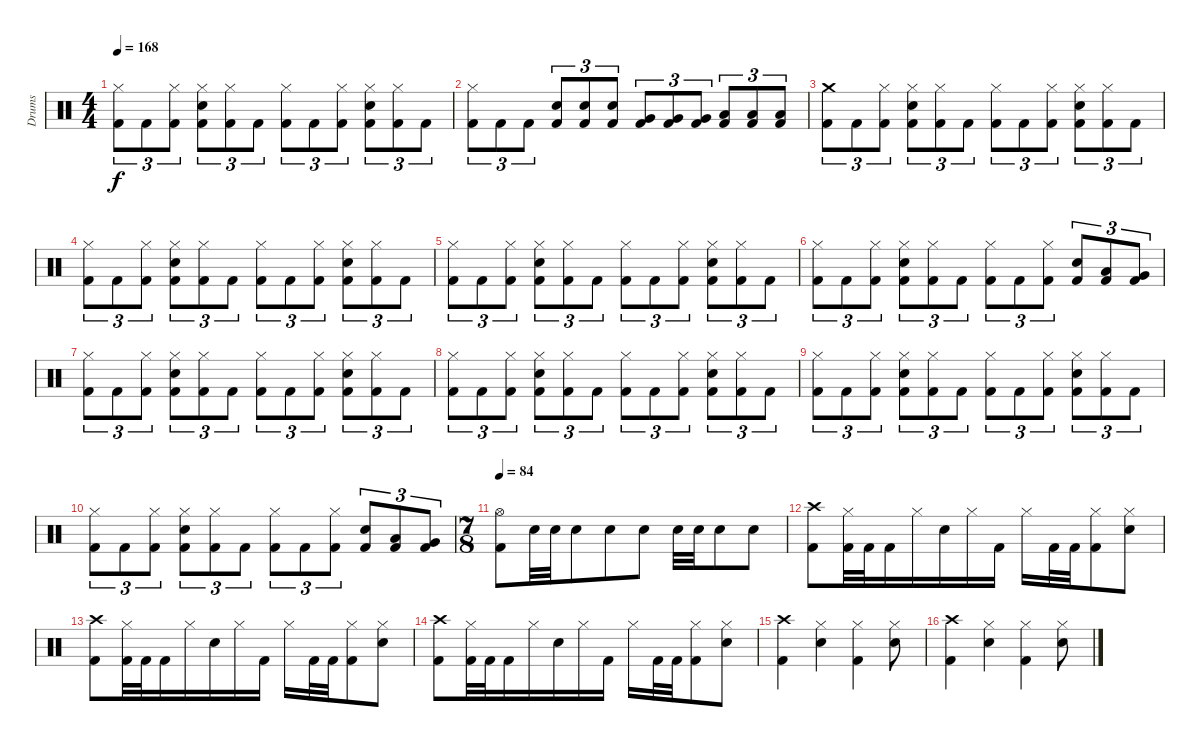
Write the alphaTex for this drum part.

\track ("Drums" "Drums") {instrument percussion}
\staff {score}
\articulation defaults
\ts (4 4)
\tempo 168
\clef neutral
\ks c
("Hi-Hat (closed)" "Kick (hit) 2").8{tu (3 2) dy f} "Kick (hit) 2".8{tu (3 2)} ("Hi-Hat (closed)" "Kick (hit) 2").8{tu (3 2)} ("Hi-Hat (closed)" "Electric Snare (hit)" "Kick (hit) 2").8{tu (3 2)} ("Hi-Hat (closed)" "Kick (hit) 2").8{tu (3 2)} "Kick (hit) 2".8{tu (3 2)} ("Hi-Hat (closed)" "Kick (hit) 2").8{tu (3 2)} "Kick (hit) 2".8{tu (3 2)} ("Hi-Hat (closed)" "Kick (hit) 2").8{tu (3 2)} ("Hi-Hat (closed)" "Electric Snare (hit)" "Kick (hit) 2").8{tu (3 2)} ("Hi-Hat (closed)" "Kick (hit) 2").8{tu (3 2)} "Kick (hit) 2".8{tu (3 2)} |
("Hi-Hat (closed)" "Kick (hit) 2").8{tu (3 2)} "Kick (hit) 2".8{tu (3 2)} "Kick (hit) 2".8{tu (3 2)} ("Electric Snare (hit)" "Kick (hit) 2").8{tu (3 2)} ("Electric Snare (hit)" "Kick (hit) 2").8{tu (3 2)} ("Electric Snare (hit)" "Kick (hit) 2").8{tu (3 2)} ("Very Low Tom (hit)" "Kick (hit) 2").8{tu (3 2)} ("Very Low Tom (hit)" "Kick (hit) 2").8{tu (3 2)} ("Very Low Tom (hit)" "Kick (hit) 2").8{tu (3 2)} ("Low Floor Tom (hit)" "Kick (hit) 2").8{tu (3 2)} ("Low Floor Tom (hit)" "Kick (hit) 2").8{tu (3 2)} ("Low Floor Tom (hit)" "Kick (hit) 2").8{tu (3 2)} |
("Crash medium (hit)" "Kick (hit) 2").8{tu (3 2)} "Kick (hit) 2".8{tu (3 2)} ("Hi-Hat (closed)" "Kick (hit) 2").8{tu (3 2)} ("Hi-Hat (closed)" "Electric Snare (hit)" "Kick (hit) 2").8{tu (3 2)} ("Hi-Hat (closed)" "Kick (hit) 2").8{tu (3 2)} "Kick (hit) 2".8{tu (3 2)} ("Hi-Hat (closed)" "Kick (hit) 2").8{tu (3 2)} "Kick (hit) 2".8{tu (3 2)} ("Hi-Hat (closed)" "Kick (hit) 2").8{tu (3 2)} ("Hi-Hat (closed)" "Electric Snare (hit)" "Kick (hit) 2").8{tu (3 2)} ("Hi-Hat (closed)" "Kick (hit) 2").8{tu (3 2)} "Kick (hit) 2".8{tu (3 2)} |
("Hi-Hat (closed)" "Kick (hit) 2").8{tu (3 2)} "Kick (hit) 2".8{tu (3 2)} ("Hi-Hat (closed)" "Kick (hit) 2").8{tu (3 2)} ("Hi-Hat (closed)" "Electric Snare (hit)" "Kick (hit) 2").8{tu (3 2)} ("Hi-Hat (closed)" "Kick (hit) 2").8{tu (3 2)} "Kick (hit) 2".8{tu (3 2)} ("Hi-Hat (closed)" "Kick (hit) 2").8{tu (3 2)} "Kick (hit) 2".8{tu (3 2)} ("Hi-Hat (closed)" "Kick (hit) 2").8{tu (3 2)} ("Hi-Hat (closed)" "Electric Snare (hit)" "Kick (hit) 2").8{tu (3 2)} ("Hi-Hat (closed)" "Kick (hit) 2").8{tu (3 2)} "Kick (hit) 2".8{tu (3 2)} |
("Hi-Hat (closed)" "Kick (hit) 2").8{tu (3 2)} "Kick (hit) 2".8{tu (3 2)} ("Hi-Hat (closed)" "Kick (hit) 2").8{tu (3 2)} ("Hi-Hat (closed)" "Electric Snare (hit)" "Kick (hit) 2").8{tu (3 2)} ("Hi-Hat (closed)" "Kick (hit) 2").8{tu (3 2)} "Kick (hit) 2".8{tu (3 2)} ("Hi-Hat (closed)" "Kick (hit) 2").8{tu (3 2)} "Kick (hit) 2".8{tu (3 2)} ("Hi-Hat (closed)" "Kick (hit) 2").8{tu (3 2)} ("Hi-Hat (closed)" "Electric Snare (hit)" "Kick (hit) 2").8{tu (3 2)} ("Hi-Hat (closed)" "Kick (hit) 2").8{tu (3 2)} "Kick (hit) 2".8{tu (3 2)} |
("Hi-Hat (closed)" "Kick (hit) 2").8{tu (3 2)} "Kick (hit) 2".8{tu (3 2)} ("Hi-Hat (closed)" "Kick (hit) 2").8{tu (3 2)} ("Hi-Hat (closed)" "Electric Snare (hit)" "Kick (hit) 2").8{tu (3 2)} ("Hi-Hat (closed)" "Kick (hit) 2").8{tu (3 2)} "Kick (hit) 2".8{tu (3 2)} ("Hi-Hat (closed)" "Kick (hit) 2").8{tu (3 2)} "Kick (hit) 2".8{tu (3 2)} ("Hi-Hat (closed)" "Kick (hit) 2").8{tu (3 2)} ("Electric Snare (hit)" "Kick (hit) 2").8{tu (3 2)} ("Low Tom (hit)" "Kick (hit) 2").8{tu (3 2)} ("Very Low Tom (hit)" "Kick (hit) 2").8{tu (3 2)} |
("Hi-Hat (closed)" "Kick (hit) 2").8{tu (3 2)} "Kick (hit) 2".8{tu (3 2)} ("Hi-Hat (closed)" "Kick (hit) 2").8{tu (3 2)} ("Hi-Hat (closed)" "Electric Snare (hit)" "Kick (hit) 2").8{tu (3 2)} ("Hi-Hat (closed)" "Kick (hit) 2").8{tu (3 2)} "Kick (hit) 2".8{tu (3 2)} ("Hi-Hat (closed)" "Kick (hit) 2").8{tu (3 2)} "Kick (hit) 2".8{tu (3 2)} ("Hi-Hat (closed)" "Kick (hit) 2").8{tu (3 2)} ("Hi-Hat (closed)" "Electric Snare (hit)" "Kick (hit) 2").8{tu (3 2)} ("Hi-Hat (closed)" "Kick (hit) 2").8{tu (3 2)} "Kick (hit) 2".8{tu (3 2)} |
("Hi-Hat (closed)" "Kick (hit) 2").8{tu (3 2)} "Kick (hit) 2".8{tu (3 2)} ("Hi-Hat (closed)" "Kick (hit) 2").8{tu (3 2)} ("Hi-Hat (closed)" "Electric Snare (hit)" "Kick (hit) 2").8{tu (3 2)} ("Hi-Hat (closed)" "Kick (hit) 2").8{tu (3 2)} "Kick (hit) 2".8{tu (3 2)} ("Hi-Hat (closed)" "Kick (hit) 2").8{tu (3 2)} "Kick (hit) 2".8{tu (3 2)} ("Hi-Hat (closed)" "Kick (hit) 2").8{tu (3 2)} ("Hi-Hat (closed)" "Electric Snare (hit)" "Kick (hit) 2").8{tu (3 2)} ("Hi-Hat (closed)" "Kick (hit) 2").8{tu (3 2)} "Kick (hit) 2".8{tu (3 2)} |
("Hi-Hat (closed)" "Kick (hit) 2").8{tu (3 2)} "Kick (hit) 2".8{tu (3 2)} ("Hi-Hat (closed)" "Kick (hit) 2").8{tu (3 2)} ("Hi-Hat (closed)" "Electric Snare (hit)" "Kick (hit) 2").8{tu (3 2)} ("Hi-Hat (closed)" "Kick (hit) 2").8{tu (3 2)} "Kick (hit) 2".8{tu (3 2)} ("Hi-Hat (closed)" "Kick (hit) 2").8{tu (3 2)} "Kick (hit) 2".8{tu (3 2)} ("Hi-Hat (closed)" "Kick (hit) 2").8{tu (3 2)} ("Hi-Hat (closed)" "Electric Snare (hit)" "Kick (hit) 2").8{tu (3 2)} ("Hi-Hat (closed)" "Kick (hit) 2").8{tu (3 2)} "Kick (hit) 2".8{tu (3 2)} |
("Hi-Hat (closed)" "Kick (hit) 2").8{tu (3 2)} "Kick (hit) 2".8{tu (3 2)} ("Hi-Hat (closed)" "Kick (hit) 2").8{tu (3 2)} ("Hi-Hat (closed)" "Electric Snare (hit)" "Kick (hit) 2").8{tu (3 2)} ("Hi-Hat (closed)" "Kick (hit) 2").8{tu (3 2)} "Kick (hit) 2".8{tu (3 2)} ("Hi-Hat (closed)" "Kick (hit) 2").8{tu (3 2)} "Kick (hit) 2".8{tu (3 2)} ("Hi-Hat (closed)" "Kick (hit) 2").8{tu (3 2)} ("Electric Snare (hit)" "Kick (hit) 2").8{tu (3 2)} ("Low Tom (hit)" "Kick (hit) 2").8{tu (3 2)} ("Very Low Tom (hit)" "Kick (hit) 2").8{tu (3 2)} |
\ts (7 8)
\tempo 84
("Hi-Hat (open)" "Kick (hit) 2").8 "Electric Snare (hit)".32 "Electric Snare (hit)".32 "Electric Snare (hit)".8 "Electric Snare (hit)".8 "Electric Snare (hit)".8 "Electric Snare (hit)".32 "Electric Snare (hit)".32 "Electric Snare (hit)".8 "Electric Snare (hit)".8 |
("Crash high (hit)" "Kick (hit) 2").8 ("Hi-Hat (closed)" "Kick (hit) 2").32 "Kick (hit) 2".32 "Kick (hit) 2".16 "Hi-Hat (closed)".16 "Electric Snare (hit)".16 "Hi-Hat (closed)".16 "Kick (hit) 2".16 "Hi-Hat (closed)".16 "Kick (hit) 2".32 "Kick (hit) 2".32 ("Hi-Hat (closed)" "Kick (hit) 2").8 ("Hi-Hat (closed)" "Electric Snare (hit)").8 |
("Crash high (hit)" "Kick (hit) 2").8 ("Hi-Hat (closed)" "Kick (hit) 2").32 "Kick (hit) 2".32 "Kick (hit) 2".16 "Hi-Hat (closed)".16 "Electric Snare (hit)".16 "Hi-Hat (closed)".16 "Kick (hit) 2".16 "Hi-Hat (closed)".16 "Kick (hit) 2".32 "Kick (hit) 2".32 ("Hi-Hat (closed)" "Kick (hit) 2").8 ("Hi-Hat (closed)" "Electric Snare (hit)").8 |
("Crash high (hit)" "Kick (hit) 2").8 ("Hi-Hat (closed)" "Kick (hit) 2").32 "Kick (hit) 2".32 "Kick (hit) 2".16 "Hi-Hat (closed)".16 "Electric Snare (hit)".16 "Hi-Hat (closed)".16 "Kick (hit) 2".16 "Hi-Hat (closed)".16 "Kick (hit) 2".32 "Kick (hit) 2".32 ("Hi-Hat (closed)" "Kick (hit) 2").8 ("Hi-Hat (closed)" "Electric Snare (hit)").8 |
("Crash high (hit)" "Kick (hit) 2").4 ("Hi-Hat (closed)" "Electric Snare (hit)").4 ("Hi-Hat (closed)" "Kick (hit) 2").4 ("Hi-Hat (closed)" "Electric Snare (hit)").8 |
("Crash high (hit)" "Kick (hit) 2").4 ("Hi-Hat (closed)" "Electric Snare (hit)").4 ("Hi-Hat (closed)" "Kick (hit) 2").4 ("Hi-Hat (closed)" "Electric Snare (hit)").8
